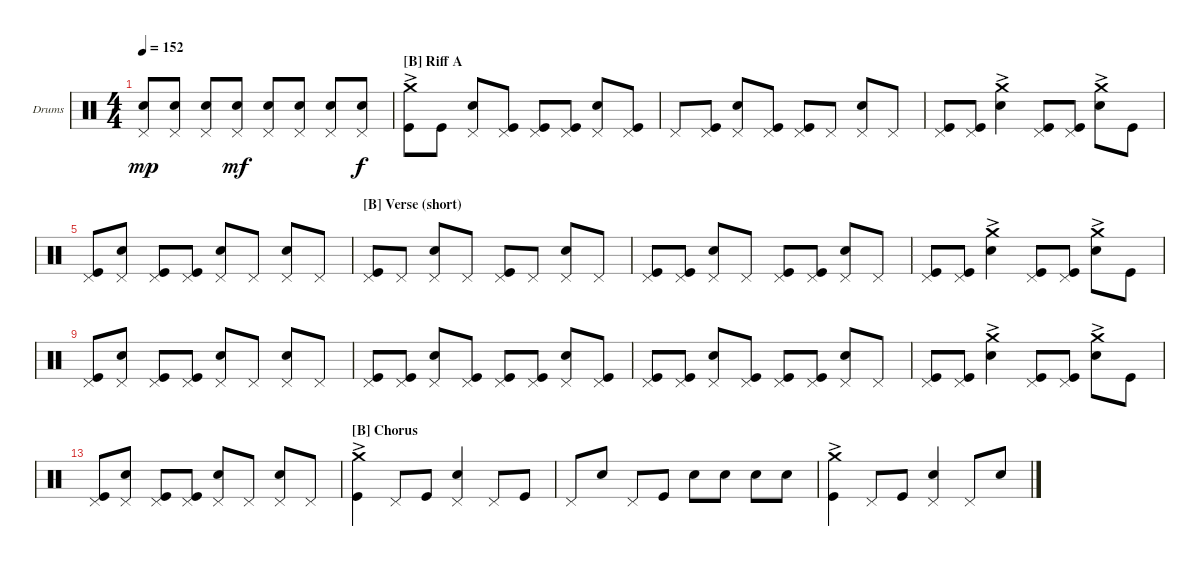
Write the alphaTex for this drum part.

\bracketExtendMode nobrackets
\firstSystemTrackNameOrientation horizontal
\otherSystemsTrackNameOrientation horizontal
\defaultBarNumberDisplay FirstOfSystem
\track ("Drumkit" "Drums") {instrument percussion}
\staff {score}
\articulation defaults
\ts (4 4)
\tempo 152
\clef neutral
\ks c
("Pedal Hi-Hat (hit)" "Snare (hit) 2").8{dy mp} ("Pedal Hi-Hat (hit)" "Snare (hit) 2").8 ("Pedal Hi-Hat (hit)" "Snare (hit) 2").8 ("Pedal Hi-Hat (hit)" "Snare (hit) 2").8{dy mf} ("Pedal Hi-Hat (hit)" "Snare (hit) 2").8 ("Pedal Hi-Hat (hit)" "Snare (hit) 2").8 ("Pedal Hi-Hat (hit)" "Snare (hit) 2").8 ("Pedal Hi-Hat (hit)" "Snare (hit) 2").8{dy f} |
\section ("B" "Riff A")
("Crash medium (hit)"{ac} "Kick (hit)").8 "Kick (hit)".8 ("Pedal Hi-Hat (hit)" "Snare (hit) 2").8 ("Pedal Hi-Hat (hit)" "Kick (hit)").8 ("Pedal Hi-Hat (hit)" "Kick (hit)").8 ("Pedal Hi-Hat (hit)" "Kick (hit)").8 ("Pedal Hi-Hat (hit)" "Snare (hit) 2").8 ("Pedal Hi-Hat (hit)" "Kick (hit)").8 |
"Pedal Hi-Hat (hit)".8 ("Pedal Hi-Hat (hit)" "Kick (hit)").8 ("Pedal Hi-Hat (hit)" "Snare (hit) 2").8 ("Pedal Hi-Hat (hit)" "Kick (hit)").8 ("Pedal Hi-Hat (hit)" "Kick (hit)").8 "Pedal Hi-Hat (hit)".8 ("Pedal Hi-Hat (hit)" "Snare (hit) 2").8 "Pedal Hi-Hat (hit)".8 |
("Pedal Hi-Hat (hit)" "Kick (hit)").8 ("Pedal Hi-Hat (hit)" "Kick (hit)").8 ("Crash medium (hit)"{ac} "Snare (hit) 2").4 ("Pedal Hi-Hat (hit)" "Kick (hit)").8 ("Pedal Hi-Hat (hit)" "Kick (hit)").8 ("Crash medium (hit)"{ac} "Snare (hit) 2").8 "Kick (hit)".8 |
("Pedal Hi-Hat (hit)" "Kick (hit)").8 ("Pedal Hi-Hat (hit)" "Snare (hit) 2").8 ("Pedal Hi-Hat (hit)" "Kick (hit)").8 ("Pedal Hi-Hat (hit)" "Kick (hit)").8 ("Pedal Hi-Hat (hit)" "Snare (hit) 2").8 "Pedal Hi-Hat (hit)".8 ("Pedal Hi-Hat (hit)" "Snare (hit) 2").8 "Pedal Hi-Hat (hit)".8 |
\section ("B" "Verse (short)")
("Pedal Hi-Hat (hit)" "Kick (hit)").8 "Pedal Hi-Hat (hit)".8 ("Pedal Hi-Hat (hit)" "Snare (hit) 2").8 "Pedal Hi-Hat (hit)".8 ("Pedal Hi-Hat (hit)" "Kick (hit)").8 "Pedal Hi-Hat (hit)".8 ("Pedal Hi-Hat (hit)" "Snare (hit) 2").8 "Pedal Hi-Hat (hit)".8 |
("Pedal Hi-Hat (hit)" "Kick (hit)").8 ("Pedal Hi-Hat (hit)" "Kick (hit)").8 ("Pedal Hi-Hat (hit)" "Snare (hit) 2").8 "Pedal Hi-Hat (hit)".8 ("Pedal Hi-Hat (hit)" "Kick (hit)").8 ("Pedal Hi-Hat (hit)" "Kick (hit)").8 ("Pedal Hi-Hat (hit)" "Snare (hit) 2").8 "Pedal Hi-Hat (hit)".8 |
("Pedal Hi-Hat (hit)" "Kick (hit)").8 ("Pedal Hi-Hat (hit)" "Kick (hit)").8 ("Crash medium (hit)"{ac} "Snare (hit) 2").4 ("Pedal Hi-Hat (hit)" "Kick (hit)").8 ("Pedal Hi-Hat (hit)" "Kick (hit)").8 ("Crash medium (hit)"{ac} "Snare (hit) 2").8 "Kick (hit)".8 |
("Pedal Hi-Hat (hit)" "Kick (hit)").8 ("Pedal Hi-Hat (hit)" "Snare (hit) 2").8 ("Pedal Hi-Hat (hit)" "Kick (hit)").8 ("Pedal Hi-Hat (hit)" "Kick (hit)").8 ("Pedal Hi-Hat (hit)" "Snare (hit) 2").8 "Pedal Hi-Hat (hit)".8 ("Pedal Hi-Hat (hit)" "Snare (hit) 2").8 "Pedal Hi-Hat (hit)".8 |
("Pedal Hi-Hat (hit)" "Kick (hit)").8 ("Pedal Hi-Hat (hit)" "Kick (hit)").8 ("Pedal Hi-Hat (hit)" "Snare (hit) 2").8 ("Pedal Hi-Hat (hit)" "Kick (hit)").8 ("Pedal Hi-Hat (hit)" "Kick (hit)").8 ("Pedal Hi-Hat (hit)" "Kick (hit)").8 ("Pedal Hi-Hat (hit)" "Snare (hit) 2").8 ("Pedal Hi-Hat (hit)" "Kick (hit)").8 |
("Pedal Hi-Hat (hit)" "Kick (hit)").8 ("Pedal Hi-Hat (hit)" "Kick (hit)").8 ("Pedal Hi-Hat (hit)" "Snare (hit) 2").8 ("Pedal Hi-Hat (hit)" "Kick (hit)").8 ("Pedal Hi-Hat (hit)" "Kick (hit)").8 ("Pedal Hi-Hat (hit)" "Kick (hit)").8 ("Pedal Hi-Hat (hit)" "Snare (hit) 2").8 "Pedal Hi-Hat (hit)".8 |
("Pedal Hi-Hat (hit)" "Kick (hit)").8 ("Pedal Hi-Hat (hit)" "Kick (hit)").8 ("Crash medium (hit)"{ac} "Snare (hit) 2").4 ("Pedal Hi-Hat (hit)" "Kick (hit)").8 ("Pedal Hi-Hat (hit)" "Kick (hit)").8 ("Crash medium (hit)"{ac} "Snare (hit) 2").8 "Kick (hit)".8 |
("Pedal Hi-Hat (hit)" "Kick (hit)").8 ("Pedal Hi-Hat (hit)" "Snare (hit) 2").8 ("Pedal Hi-Hat (hit)" "Kick (hit)").8 ("Pedal Hi-Hat (hit)" "Kick (hit)").8 ("Pedal Hi-Hat (hit)" "Snare (hit) 2").8 "Pedal Hi-Hat (hit)".8 ("Pedal Hi-Hat (hit)" "Snare (hit) 2").8 "Pedal Hi-Hat (hit)".8 |
\section ("B" "Chorus")
("Crash medium (hit)"{ac} "Kick (hit)").4 "Pedal Hi-Hat (hit)".8 "Kick (hit)".8 ("Pedal Hi-Hat (hit)" "Snare (hit) 2").4 "Pedal Hi-Hat (hit)".8 "Kick (hit)".8 |
"Pedal Hi-Hat (hit)".8 "Snare (hit) 2".8 "Pedal Hi-Hat (hit)".8 "Kick (hit)".8 "Snare (hit) 2".8 "Snare (hit) 2".8 "Snare (hit) 2".8 "Snare (hit) 2".8 |
("Crash medium (hit)"{ac} "Kick (hit)").4 "Pedal Hi-Hat (hit)".8 "Kick (hit)".8 ("Pedal Hi-Hat (hit)" "Snare (hit) 2").4 "Pedal Hi-Hat (hit)".8 "Snare (hit) 2".8
